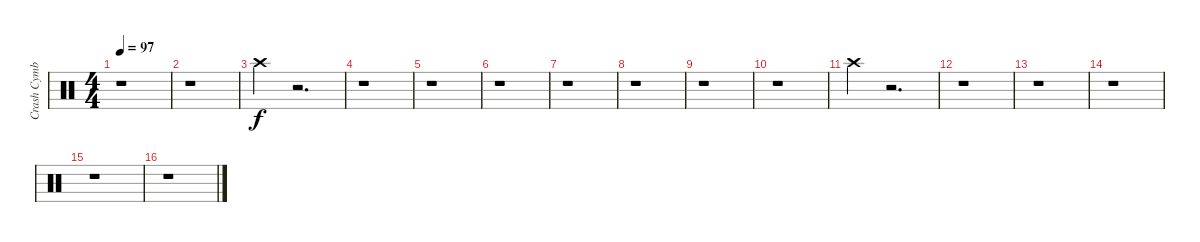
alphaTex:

\track ("Crash Cymbal" "Crash Cymb") {instrument percussion}
\staff {score}
\articulation defaults
\ts (4 4)
\tempo 97
\clef neutral
\ks c
r.1{dy f} |
r.1 |
"Crash high (hit)".4 r.2{d} |
r.1 |
r.1 |
r.1 |
r.1 |
r.1 |
r.1 |
r.1 |
"Crash high (hit)".4 r.2{d} |
r.1 |
r.1 |
r.1 |
r.1 |
r.1
